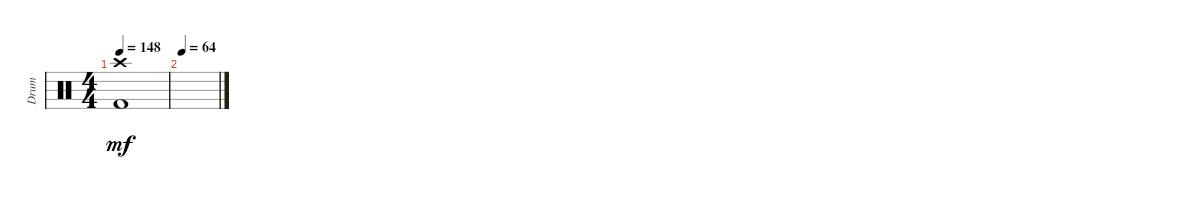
\track ("Drum" "Drum") {instrument percussion}
\staff {score}
\articulation defaults
\ts (4 4)
\tempo 148
\clef neutral
\ks c
("Crash high (hit)" "Kick (hit) 2").1{dy mf} |
\tempo 64
